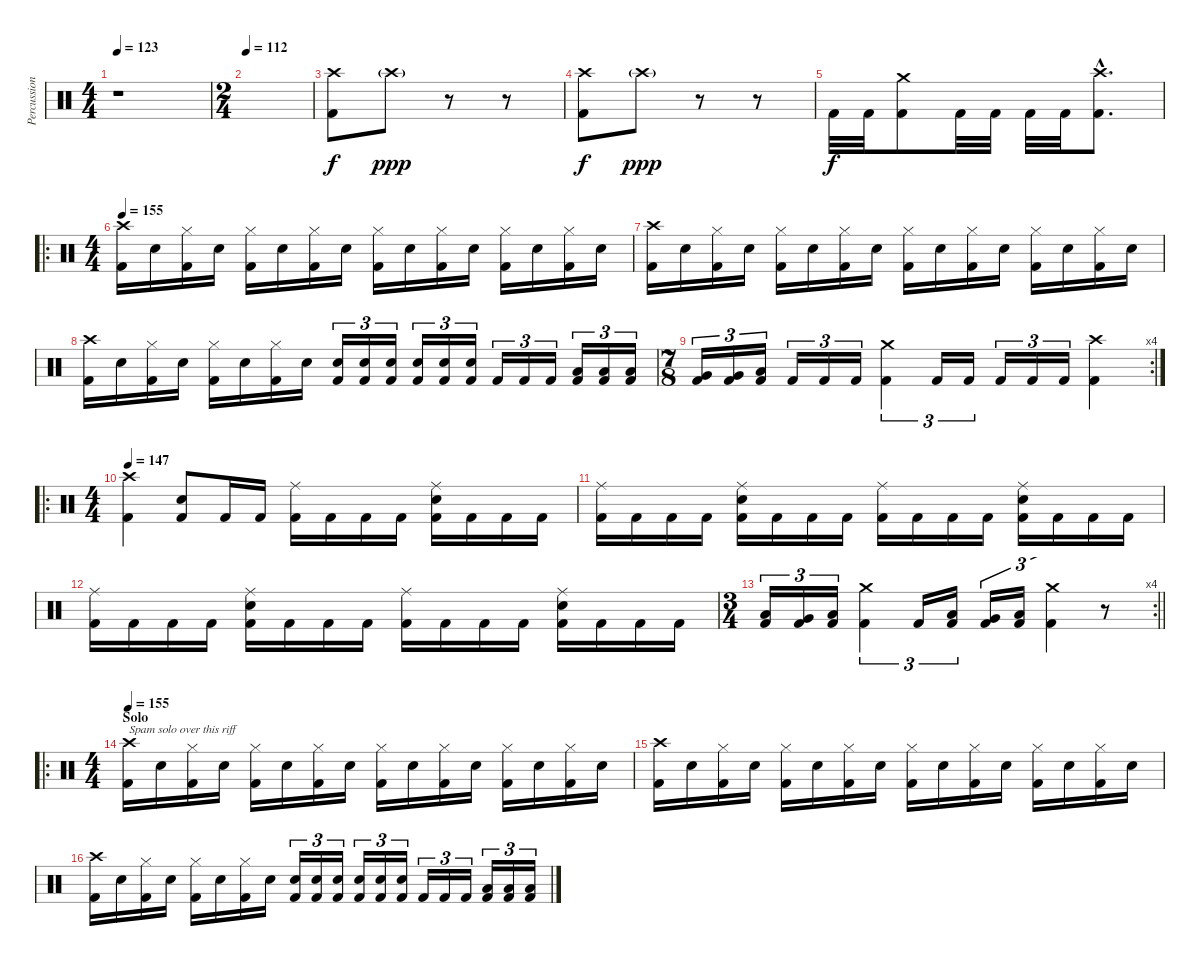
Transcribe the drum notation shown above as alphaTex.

\track ("Percussion" "Percussion") {instrument percussion}
\staff {score}
\articulation defaults
\ts (4 4)
\tempo 123
\clef neutral
\ks c
r.1{dy f} |
\ts (2 4)
\tempo 112
|
("Crash high (hit)" "Kick (hit) 2").8 "Crash high (hit)"{g}.8{dy ppp} r.8 r.8 |
("Crash high (hit)" "Kick (hit) 2").8{dy f} "Crash high (hit)"{g}.8{dy ppp} r.8 r.8 |
"Kick (hit) 2".32{dy f} "Kick (hit) 2".32 ("Crash medium (hit)" "Kick (hit) 2").8 "Kick (hit) 2".32 "Kick (hit) 2".32 "Kick (hit) 2".32 "Kick (hit) 2".32 ("Crash high (hit)"{hac} "Kick (hit) 2"{hac}).8{d} |
\ro
\ts (4 4)
\tempo 155
("Crash high (hit)" "Kick (hit) 2").16 "Snare (hit) 2".16 ("Hi-Hat (closed)" "Kick (hit) 2").16 "Snare (hit) 2".16 ("Hi-Hat (closed)" "Kick (hit) 2").16 "Snare (hit) 2".16 ("Hi-Hat (closed)" "Kick (hit) 2").16 "Snare (hit) 2".16 ("Hi-Hat (closed)" "Kick (hit) 2").16 "Snare (hit) 2".16 ("Hi-Hat (closed)" "Kick (hit) 2").16 "Snare (hit) 2".16 ("Hi-Hat (closed)" "Kick (hit) 2").16 "Snare (hit) 2".16 ("Hi-Hat (closed)" "Kick (hit) 2").16 "Snare (hit) 2".16 |
("Crash high (hit)" "Kick (hit) 2").16 "Snare (hit) 2".16 ("Hi-Hat (closed)" "Kick (hit) 2").16 "Snare (hit) 2".16 ("Hi-Hat (closed)" "Kick (hit) 2").16 "Snare (hit) 2".16 ("Hi-Hat (closed)" "Kick (hit) 2").16 "Snare (hit) 2".16 ("Hi-Hat (closed)" "Kick (hit) 2").16 "Snare (hit) 2".16 ("Hi-Hat (closed)" "Kick (hit) 2").16 "Snare (hit) 2".16 ("Hi-Hat (closed)" "Kick (hit) 2").16 "Snare (hit) 2".16 ("Hi-Hat (closed)" "Kick (hit) 2").16 "Snare (hit) 2".16 |
("Crash high (hit)" "Kick (hit) 2").16 "Snare (hit) 2".16 ("Hi-Hat (closed)" "Kick (hit) 2").16 "Snare (hit) 2".16 ("Hi-Hat (closed)" "Kick (hit) 2").16 "Snare (hit) 2".16 ("Hi-Hat (closed)" "Kick (hit) 2").16 "Snare (hit) 2".16 ("Snare (hit) 2" "Kick (hit) 2").16{tu (3 2)} ("Snare (hit) 2" "Kick (hit) 2").16{tu (3 2)} ("Snare (hit) 2" "Kick (hit) 2").16{tu (3 2)} ("Snare (hit) 2" "Kick (hit) 2").16{tu (3 2)} ("Snare (hit) 2" "Kick (hit) 2").16{tu (3 2)} ("Snare (hit) 2" "Kick (hit) 2").16{tu (3 2)} "Kick (hit) 2".16{tu (3 2)} "Kick (hit) 2".16{tu (3 2)} "Kick (hit) 2".16{tu (3 2)} ("Low Tom (hit)" "Kick (hit) 2").16{tu (3 2)} ("Low Tom (hit)" "Kick (hit) 2").16{tu (3 2)} ("Low Tom (hit)" "Kick (hit) 2").16{tu (3 2)} |
\rc 4
\ts (7 8)
("Very Low Tom (hit)" "Kick (hit) 2").16{tu (3 2)} ("Very Low Tom (hit)" "Kick (hit) 2").16{tu (3 2)} ("Low Floor Tom (hit)" "Kick (hit) 2").16{tu (3 2)} "Kick (hit) 2".16{tu (3 2)} "Kick (hit) 2".16{tu (3 2)} "Kick (hit) 2".16{tu (3 2)} ("Crash medium (hit)" "Kick (hit) 2").4{tu (3 2)} "Kick (hit) 2".16{tu (3 2)} "Kick (hit) 2".16{tu (3 2)} "Kick (hit) 2".16{tu (3 2)} "Kick (hit) 2".16{tu (3 2)} "Kick (hit) 2".16{tu (3 2)} ("Crash high (hit)" "Kick (hit) 2").4 |
\ro
\ts (4 4)
\tempo 147
("Crash high (hit)" "Kick (hit) 2").4 ("Snare (hit) 2" "Kick (hit) 2").8 "Kick (hit) 2".16 "Kick (hit) 2".16 ("Ride (middle)" "Kick (hit) 2").16 "Kick (hit) 2".16 "Kick (hit) 2".16 "Kick (hit) 2".16 ("Ride (middle)" "Snare (hit) 2" "Kick (hit) 2").16 "Kick (hit) 2".16 "Kick (hit) 2".16 "Kick (hit) 2".16 |
("Ride (middle)" "Kick (hit) 2").16 "Kick (hit) 2".16 "Kick (hit) 2".16 "Kick (hit) 2".16 ("Ride (middle)" "Snare (hit) 2" "Kick (hit) 2").16 "Kick (hit) 2".16 "Kick (hit) 2".16 "Kick (hit) 2".16 ("Ride (middle)" "Kick (hit) 2").16 "Kick (hit) 2".16 "Kick (hit) 2".16 "Kick (hit) 2".16 ("Ride (middle)" "Snare (hit) 2" "Kick (hit) 2").16 "Kick (hit) 2".16 "Kick (hit) 2".16 "Kick (hit) 2".16 |
("Ride (middle)" "Kick (hit) 2").16 "Kick (hit) 2".16 "Kick (hit) 2".16 "Kick (hit) 2".16 ("Ride (middle)" "Snare (hit) 2" "Kick (hit) 2").16 "Kick (hit) 2".16 "Kick (hit) 2".16 "Kick (hit) 2".16 ("Ride (middle)" "Kick (hit) 2").16 "Kick (hit) 2".16 "Kick (hit) 2".16 "Kick (hit) 2".16 ("Ride (middle)" "Snare (hit) 2" "Kick (hit) 2").16 "Kick (hit) 2".16 "Kick (hit) 2".16 "Kick (hit) 2".16 |
\rc 4
\ts (3 4)
\barLineRight lightlight
("Low Tom (hit)" "Kick (hit) 2").16{tu (3 2)} ("Very Low Tom (hit)" "Kick (hit) 2").16{tu (3 2)} ("Low Floor Tom (hit)" "Kick (hit) 2").16{tu (3 2)} ("Crash medium (hit)" "Kick (hit) 2").4{tu (3 2)} "Kick (hit) 2".16{tu (3 2)} ("Low Tom (hit)" "Kick (hit) 2").16{tu (3 2)} ("Very Low Tom (hit)" "Kick (hit) 2").16{tu (3 2)} ("Low Floor Tom (hit)" "Kick (hit) 2").16{tu (3 2)} ("Crash medium (hit)" "Kick (hit) 2").4{tu (3 2)} r.8 |
\ro
\ts (4 4)
\section ("" "Solo")
\tempo 155
("Crash high (hit)" "Kick (hit) 2").16{txt "Spam solo over this riff"} "Snare (hit) 2".16 ("Hi-Hat (closed)" "Kick (hit) 2").16 "Snare (hit) 2".16 ("Hi-Hat (closed)" "Kick (hit) 2").16 "Snare (hit) 2".16 ("Hi-Hat (closed)" "Kick (hit) 2").16 "Snare (hit) 2".16 ("Hi-Hat (closed)" "Kick (hit) 2").16 "Snare (hit) 2".16 ("Hi-Hat (closed)" "Kick (hit) 2").16 "Snare (hit) 2".16 ("Hi-Hat (closed)" "Kick (hit) 2").16 "Snare (hit) 2".16 ("Hi-Hat (closed)" "Kick (hit) 2").16 "Snare (hit) 2".16 |
("Crash high (hit)" "Kick (hit) 2").16 "Snare (hit) 2".16 ("Hi-Hat (closed)" "Kick (hit) 2").16 "Snare (hit) 2".16 ("Hi-Hat (closed)" "Kick (hit) 2").16 "Snare (hit) 2".16 ("Hi-Hat (closed)" "Kick (hit) 2").16 "Snare (hit) 2".16 ("Hi-Hat (closed)" "Kick (hit) 2").16 "Snare (hit) 2".16 ("Hi-Hat (closed)" "Kick (hit) 2").16 "Snare (hit) 2".16 ("Hi-Hat (closed)" "Kick (hit) 2").16 "Snare (hit) 2".16 ("Hi-Hat (closed)" "Kick (hit) 2").16 "Snare (hit) 2".16 |
("Crash high (hit)" "Kick (hit) 2").16 "Snare (hit) 2".16 ("Hi-Hat (closed)" "Kick (hit) 2").16 "Snare (hit) 2".16 ("Hi-Hat (closed)" "Kick (hit) 2").16 "Snare (hit) 2".16 ("Hi-Hat (closed)" "Kick (hit) 2").16 "Snare (hit) 2".16 ("Snare (hit) 2" "Kick (hit) 2").16{tu (3 2)} ("Snare (hit) 2" "Kick (hit) 2").16{tu (3 2)} ("Snare (hit) 2" "Kick (hit) 2").16{tu (3 2)} ("Snare (hit) 2" "Kick (hit) 2").16{tu (3 2)} ("Snare (hit) 2" "Kick (hit) 2").16{tu (3 2)} ("Snare (hit) 2" "Kick (hit) 2").16{tu (3 2)} "Kick (hit) 2".16{tu (3 2)} "Kick (hit) 2".16{tu (3 2)} "Kick (hit) 2".16{tu (3 2)} ("Low Tom (hit)" "Kick (hit) 2").16{tu (3 2)} ("Low Tom (hit)" "Kick (hit) 2").16{tu (3 2)} ("Low Tom (hit)" "Kick (hit) 2").16{tu (3 2)}
